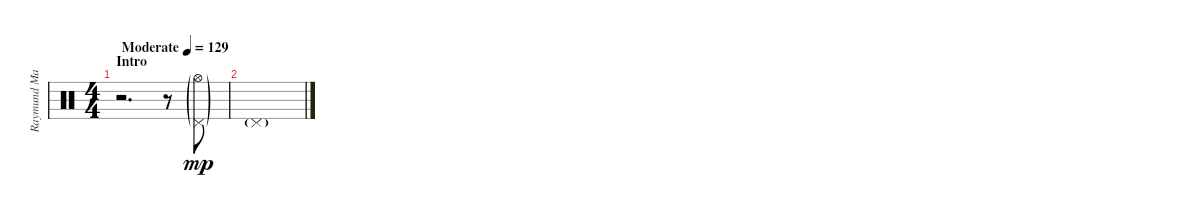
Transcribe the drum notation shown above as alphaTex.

\track ("Raymund Marasigan(Drums)" "Raymund Ma") {instrument percussion}
\staff {score}
\articulation defaults
\ts (4 4)
\section ("" "Intro")
\tempo (129 "Moderate")
\clef neutral
\ks c
r.2{d dy mp} r.8 ("Pedal Hi-Hat (hit)"{g} "Hi-Hat (open)"{g}).8 |
"Pedal Hi-Hat (hit)"{g}.1
